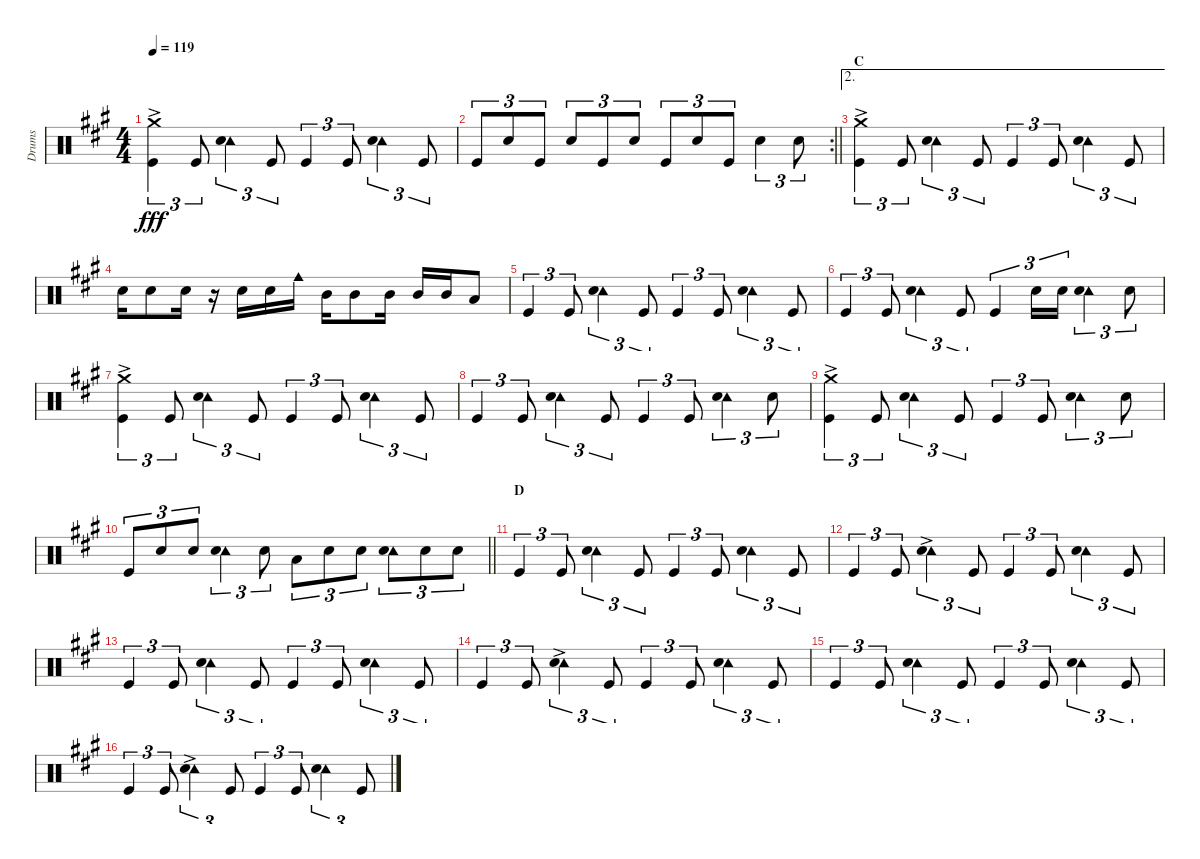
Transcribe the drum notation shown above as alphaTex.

\track ("Drums" "Drums") {instrument percussion}
\staff {score}
\articulation defaults
\ts (4 4)
\tempo 119
\clef neutral
\ks a
("Crash medium (hit)"{ac} "Kick (hit)").4{tu (3 2) dy fff} "Kick (hit)".8{tu (3 2)} ("Tambourine (hit)" "Snare (hit) 2").4{tu (3 2)} "Kick (hit)".8{tu (3 2)} "Kick (hit)".4{tu (3 2)} "Kick (hit)".8{tu (3 2)} ("Tambourine (hit)" "Snare (hit) 2").4{tu (3 2)} "Kick (hit)".8{tu (3 2)} |
\rc 2
\barLineRight lightlight "Kick (hit)".8{tu (3 2)} "Snare (hit) 2".8{tu (3 2)} "Kick (hit)".8{tu (3 2)} "Snare (hit) 2".8{tu (3 2)} "Kick (hit)".8{tu (3 2)} "Snare (hit) 2".8{tu (3 2)} "Kick (hit)".8{tu (3 2)} "Snare (hit) 2".8{tu (3 2)} "Kick (hit)".8{tu (3 2)} "Snare (hit) 2".4{tu (3 2)} "Snare (hit) 2".8{tu (3 2)}
|
\ae 2
\section ("" "C")
("Crash medium (hit)"{ac} "Kick (hit)").4{tu (3 2)} "Kick (hit)".8{tu (3 2)} ("Tambourine (hit)" "Snare (hit) 2").4{tu (3 2)} "Kick (hit)".8{tu (3 2)} "Kick (hit)".4{tu (3 2)} "Kick (hit)".8{tu (3 2)} ("Tambourine (hit)" "Snare (hit) 2").4{tu (3 2)} "Kick (hit)".8{tu (3 2)} |
"Snare (hit) 2".16 "Snare (hit) 2".8 "Snare (hit) 2".16 r.16 "Snare (hit) 2".16 "Snare (hit) 2".16 "Cowbell medium (hit)".16 "Mid Tom (hit)".16 "Mid Tom (hit)".8 "Mid Tom (hit)".16 "Mid Tom (hit)".16 "Mid Tom (hit)".16 "Low Tom (hit)".8 |
"Kick (hit)".4{tu (3 2)} "Kick (hit)".8{tu (3 2)} ("Tambourine (hit)" "Snare (hit) 2").4{tu (3 2)} "Kick (hit)".8{tu (3 2)} "Kick (hit)".4{tu (3 2)} "Kick (hit)".8{tu (3 2)} ("Tambourine (hit)" "Snare (hit) 2").4{tu (3 2)} "Kick (hit)".8{tu (3 2)} |
"Kick (hit)".4{tu (3 2)} "Kick (hit)".8{tu (3 2)} ("Tambourine (hit)" "Snare (hit) 2").4{tu (3 2)} "Kick (hit)".8{tu (3 2)} "Kick (hit)".4{tu (3 2)} "Snare (hit) 2".16{tu (3 2)} "Snare (hit) 2".16{tu (3 2)} ("Tambourine (hit)" "Snare (hit) 2").4{tu (3 2)} "Snare (hit) 2".8{tu (3 2)} |
("Crash medium (hit)"{ac} "Kick (hit)").4{tu (3 2)} "Kick (hit)".8{tu (3 2)} ("Tambourine (hit)" "Snare (hit) 2").4{tu (3 2)} "Kick (hit)".8{tu (3 2)} "Kick (hit)".4{tu (3 2)} "Kick (hit)".8{tu (3 2)} ("Tambourine (hit)" "Snare (hit) 2").4{tu (3 2)} "Kick (hit)".8{tu (3 2)} |
"Kick (hit)".4{tu (3 2)} "Kick (hit)".8{tu (3 2)} ("Tambourine (hit)" "Snare (hit) 2").4{tu (3 2)} "Kick (hit)".8{tu (3 2)} "Kick (hit)".4{tu (3 2)} "Kick (hit)".8{tu (3 2)} ("Tambourine (hit)" "Snare (hit) 2").4{tu (3 2)} "Snare (hit) 2".8{tu (3 2)} |
("Crash medium (hit)"{ac} "Kick (hit)").4{tu (3 2)} "Kick (hit)".8{tu (3 2)} ("Tambourine (hit)" "Snare (hit) 2").4{tu (3 2)} "Kick (hit)".8{tu (3 2)} "Kick (hit)".4{tu (3 2)} "Kick (hit)".8{tu (3 2)} ("Tambourine (hit)" "Snare (hit) 2").4{tu (3 2)} "Snare (hit) 2".8{tu (3 2)} |
\barLineRight lightlight "Kick (hit)".8{tu (3 2)} "Snare (hit) 2".8{tu (3 2)} "Snare (hit) 2".8{tu (3 2)}
("Tambourine (hit)" "Snare (hit) 2").4{tu (3 2)} "Snare (hit) 2".8{tu (3 2)} "Low Tom (hit)".8{tu (3 2)} "Snare (hit) 2".8{tu (3 2)} "Snare (hit) 2".8{tu (3 2)} ("Tambourine (hit)" "Snare (hit) 2").8{tu (3 2)} "Snare (hit) 2".8{tu (3 2)} "Snare (hit) 2".8{tu (3 2)} |
\section ("" "D")
"Kick (hit)".4{tu (3 2)} "Kick (hit)".8{tu (3 2)} ("Tambourine (hit)" "Snare (hit) 2").4{tu (3 2)} "Kick (hit)".8{tu (3 2)} "Kick (hit)".4{tu (3 2)} "Kick (hit)".8{tu (3 2)} ("Tambourine (hit)" "Snare (hit) 2").4{tu (3 2)} "Kick (hit)".8{tu (3 2)} |
"Kick (hit)".4{tu (3 2)} "Kick (hit)".8{tu (3 2)} ("Tambourine (hit)"{ac} "Snare (hit) 2"{ac}).4{tu (3 2)} "Kick (hit)".8{tu (3 2)} "Kick (hit)".4{tu (3 2)} "Kick (hit)".8{tu (3 2)} ("Tambourine (hit)" "Snare (hit) 2").4{tu (3 2)} "Kick (hit)".8{tu (3 2)} |
"Kick (hit)".4{tu (3 2)} "Kick (hit)".8{tu (3 2)} ("Tambourine (hit)" "Snare (hit) 2").4{tu (3 2)} "Kick (hit)".8{tu (3 2)} "Kick (hit)".4{tu (3 2)} "Kick (hit)".8{tu (3 2)} ("Tambourine (hit)" "Snare (hit) 2").4{tu (3 2)} "Kick (hit)".8{tu (3 2)} |
"Kick (hit)".4{tu (3 2)} "Kick (hit)".8{tu (3 2)} ("Tambourine (hit)"{ac} "Snare (hit) 2"{ac}).4{tu (3 2)} "Kick (hit)".8{tu (3 2)} "Kick (hit)".4{tu (3 2)} "Kick (hit)".8{tu (3 2)} ("Tambourine (hit)" "Snare (hit) 2").4{tu (3 2)} "Kick (hit)".8{tu (3 2)} |
"Kick (hit)".4{tu (3 2)} "Kick (hit)".8{tu (3 2)} ("Tambourine (hit)" "Snare (hit) 2").4{tu (3 2)} "Kick (hit)".8{tu (3 2)} "Kick (hit)".4{tu (3 2)} "Kick (hit)".8{tu (3 2)} ("Tambourine (hit)" "Snare (hit) 2").4{tu (3 2)} "Kick (hit)".8{tu (3 2)} |
"Kick (hit)".4{tu (3 2)} "Kick (hit)".8{tu (3 2)} ("Tambourine (hit)"{ac} "Snare (hit) 2"{ac}).4{tu (3 2)} "Kick (hit)".8{tu (3 2)} "Kick (hit)".4{tu (3 2)} "Kick (hit)".8{tu (3 2)} ("Tambourine (hit)" "Snare (hit) 2").4{tu (3 2)} "Kick (hit)".8{tu (3 2)}
